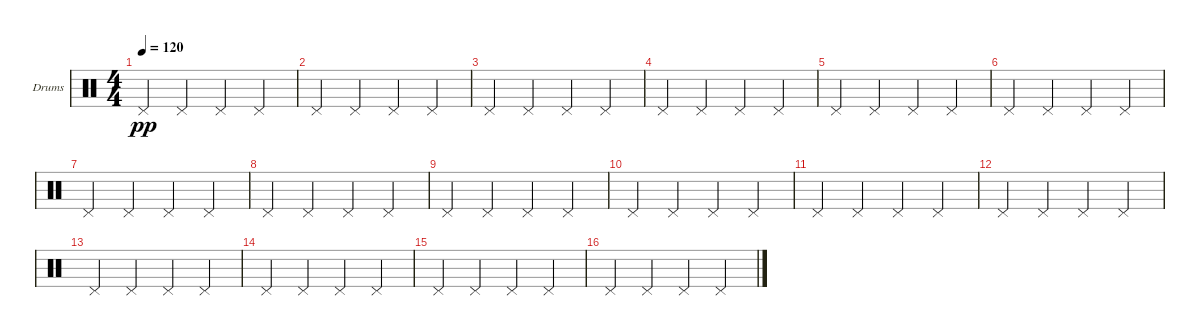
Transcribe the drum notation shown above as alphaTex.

\defaultSystemsLayout 4
\bracketExtendMode groupsimilarinstruments
\firstSystemTrackNameOrientation horizontal
\otherSystemsTrackNameOrientation horizontal
\track ("Drumkit" "Drums") {instrument percussion}
\staff {score}
\articulation defaults
\ts (4 4)
\tempo 120
\clef neutral
\scale
0.474178
\ks c "Pedal Hi-Hat (hit)".4{dy pp} "Pedal Hi-Hat (hit)".4 "Pedal Hi-Hat (hit)".4 "Pedal Hi-Hat (hit)".4
|
\scale
0.262911 "Pedal Hi-Hat (hit)".4 "Pedal Hi-Hat (hit)".4 "Pedal Hi-Hat (hit)".4 "Pedal Hi-Hat (hit)".4 |
\scale
0.262911 "Pedal Hi-Hat (hit)".4 "Pedal Hi-Hat (hit)".4 "Pedal Hi-Hat (hit)".4 "Pedal Hi-Hat (hit)".4 |
\scale
0.333333 "Pedal Hi-Hat (hit)".4 "Pedal Hi-Hat (hit)".4 "Pedal Hi-Hat (hit)".4 "Pedal Hi-Hat (hit)".4 |
\scale
0.333333 "Pedal Hi-Hat (hit)".4 "Pedal Hi-Hat (hit)".4 "Pedal Hi-Hat (hit)".4 "Pedal Hi-Hat (hit)".4 |
\scale
0.333333 "Pedal Hi-Hat (hit)".4 "Pedal Hi-Hat (hit)".4 "Pedal Hi-Hat (hit)".4 "Pedal Hi-Hat (hit)".4 |
\scale
0.333333 "Pedal Hi-Hat (hit)".4 "Pedal Hi-Hat (hit)".4 "Pedal Hi-Hat (hit)".4 "Pedal Hi-Hat (hit)".4 |
\scale
0.333333 "Pedal Hi-Hat (hit)".4 "Pedal Hi-Hat (hit)".4 "Pedal Hi-Hat (hit)".4 "Pedal Hi-Hat (hit)".4 |
\scale
0.333333 "Pedal Hi-Hat (hit)".4 "Pedal Hi-Hat (hit)".4 "Pedal Hi-Hat (hit)".4 "Pedal Hi-Hat (hit)".4 |
\scale
0.333333 "Pedal Hi-Hat (hit)".4 "Pedal Hi-Hat (hit)".4 "Pedal Hi-Hat (hit)".4 "Pedal Hi-Hat (hit)".4 |
\scale
0.333333 "Pedal Hi-Hat (hit)".4 "Pedal Hi-Hat (hit)".4 "Pedal Hi-Hat (hit)".4 "Pedal Hi-Hat (hit)".4 |
\scale
0.333333 "Pedal Hi-Hat (hit)".4 "Pedal Hi-Hat (hit)".4 "Pedal Hi-Hat (hit)".4 "Pedal Hi-Hat (hit)".4 |
\scale
0.333333 "Pedal Hi-Hat (hit)".4 "Pedal Hi-Hat (hit)".4 "Pedal Hi-Hat (hit)".4 "Pedal Hi-Hat (hit)".4 |
\scale
0.333333 "Pedal Hi-Hat (hit)".4 "Pedal Hi-Hat (hit)".4 "Pedal Hi-Hat (hit)".4 "Pedal Hi-Hat (hit)".4 |
\scale
0.333333 "Pedal Hi-Hat (hit)".4 "Pedal Hi-Hat (hit)".4 "Pedal Hi-Hat (hit)".4 "Pedal Hi-Hat (hit)".4 |
\scale
0.333333 "Pedal Hi-Hat (hit)".4 "Pedal Hi-Hat (hit)".4 "Pedal Hi-Hat (hit)".4 "Pedal Hi-Hat (hit)".4
